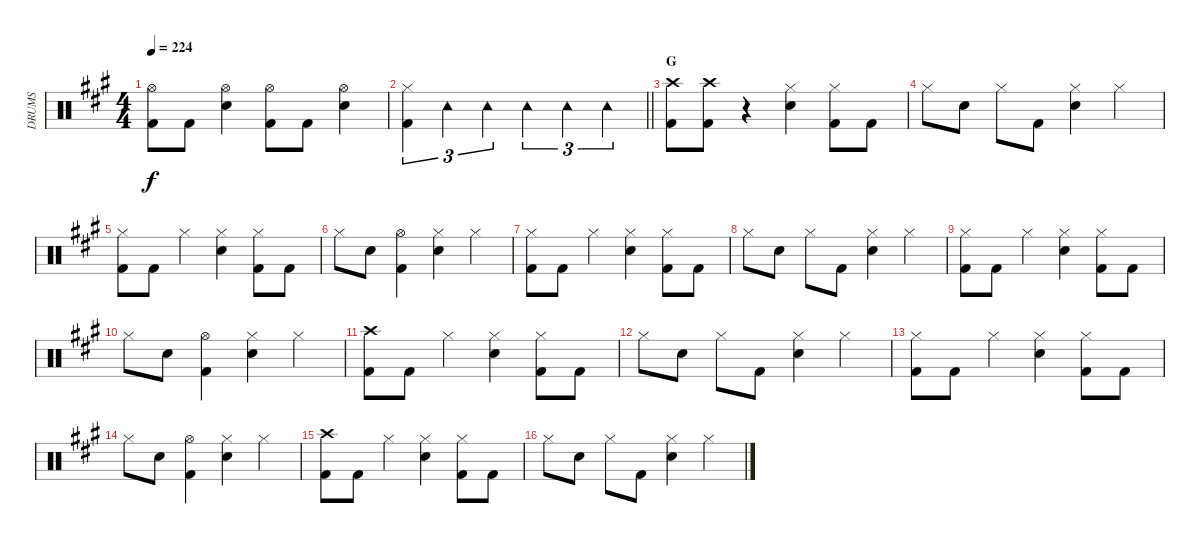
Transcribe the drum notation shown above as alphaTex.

\track ("DRUMS" "DRUMS") {instrument percussion}
\staff {score}
\articulation defaults
\ts (4 4)
\tempo 224
\clef neutral
\ks a
("Hi-Hat (open)" "Kick (hit) 2").8{dy f} "Kick (hit) 2".8 ("Hi-Hat (open)" "Snare (hit) 2").4 ("Hi-Hat (open)" "Kick (hit) 2").8 "Kick (hit) 2".8 ("Hi-Hat (open)" "Snare (hit) 2").4 |
\barLineRight lightlight
("Hi-Hat (closed)" "Kick (hit) 2").4{tu (3 2)} "Tambourine (hit)".4{tu (3 2)} "Tambourine (hit)".4{tu (3 2)} "Tambourine (hit)".4{tu (3 2)} "Tambourine (hit)".4{tu (3 2)} "Tambourine (hit)".4{tu (3 2)} |
\section ("" "G")
("Crash high (hit)" "Kick (hit) 2").8 ("Crash high (hit)" "Kick (hit) 2").8 r.4 ("Hi-Hat (closed)" "Snare (hit) 2").4 ("Hi-Hat (closed)" "Kick (hit) 2").8 "Kick (hit) 2".8 |
"Hi-Hat (closed)".8 "Snare (hit) 2".8 "Hi-Hat (closed)".8 "Kick (hit) 2".8 ("Hi-Hat (closed)" "Snare (hit) 2").4 "Hi-Hat (closed)".4 |
("Hi-Hat (closed)" "Kick (hit) 2").8 "Kick (hit) 2".8 "Hi-Hat (closed)".4 ("Hi-Hat (closed)" "Snare (hit) 2").4 ("Hi-Hat (closed)" "Kick (hit) 2").8 "Kick (hit) 2".8 |
"Hi-Hat (closed)".8 "Snare (hit) 2".8 ("Hi-Hat (open)" "Kick (hit) 2").4 ("Hi-Hat (closed)" "Snare (hit) 2").4 "Hi-Hat (closed)".4 |
("Hi-Hat (closed)" "Kick (hit) 2").8 "Kick (hit) 2".8 "Hi-Hat (closed)".4 ("Hi-Hat (closed)" "Snare (hit) 2").4 ("Hi-Hat (closed)" "Kick (hit) 2").8 "Kick (hit) 2".8 |
"Hi-Hat (closed)".8 "Snare (hit) 2".8 "Hi-Hat (closed)".8 "Kick (hit) 2".8 ("Hi-Hat (closed)" "Snare (hit) 2").4 "Hi-Hat (closed)".4 |
("Hi-Hat (closed)" "Kick (hit) 2").8 "Kick (hit) 2".8 "Hi-Hat (closed)".4 ("Hi-Hat (closed)" "Snare (hit) 2").4 ("Hi-Hat (closed)" "Kick (hit) 2").8 "Kick (hit) 2".8 |
"Hi-Hat (closed)".8 "Snare (hit) 2".8 ("Hi-Hat (open)" "Kick (hit) 2").4 ("Hi-Hat (closed)" "Snare (hit) 2").4 "Hi-Hat (closed)".4 |
("Crash high (hit)" "Kick (hit) 2").8 "Kick (hit) 2".8 "Hi-Hat (closed)".4 ("Hi-Hat (closed)" "Snare (hit) 2").4 ("Hi-Hat (closed)" "Kick (hit) 2").8 "Kick (hit) 2".8 |
"Hi-Hat (closed)".8 "Snare (hit) 2".8 "Hi-Hat (closed)".8 "Kick (hit) 2".8 ("Hi-Hat (closed)" "Snare (hit) 2").4 "Hi-Hat (closed)".4 |
("Hi-Hat (closed)" "Kick (hit) 2").8 "Kick (hit) 2".8 "Hi-Hat (closed)".4 ("Hi-Hat (closed)" "Snare (hit) 2").4 ("Hi-Hat (closed)" "Kick (hit) 2").8 "Kick (hit) 2".8 |
"Hi-Hat (closed)".8 "Snare (hit) 2".8 ("Hi-Hat (open)" "Kick (hit) 2").4 ("Hi-Hat (closed)" "Snare (hit) 2").4 "Hi-Hat (closed)".4 |
("Crash high (hit)" "Kick (hit) 2").8 "Kick (hit) 2".8 "Hi-Hat (closed)".4 ("Hi-Hat (closed)" "Snare (hit) 2").4 ("Hi-Hat (closed)" "Kick (hit) 2").8 "Kick (hit) 2".8 |
"Hi-Hat (closed)".8 "Snare (hit) 2".8 "Hi-Hat (closed)".8 "Kick (hit) 2".8 ("Hi-Hat (closed)" "Snare (hit) 2").4 "Hi-Hat (closed)".4
